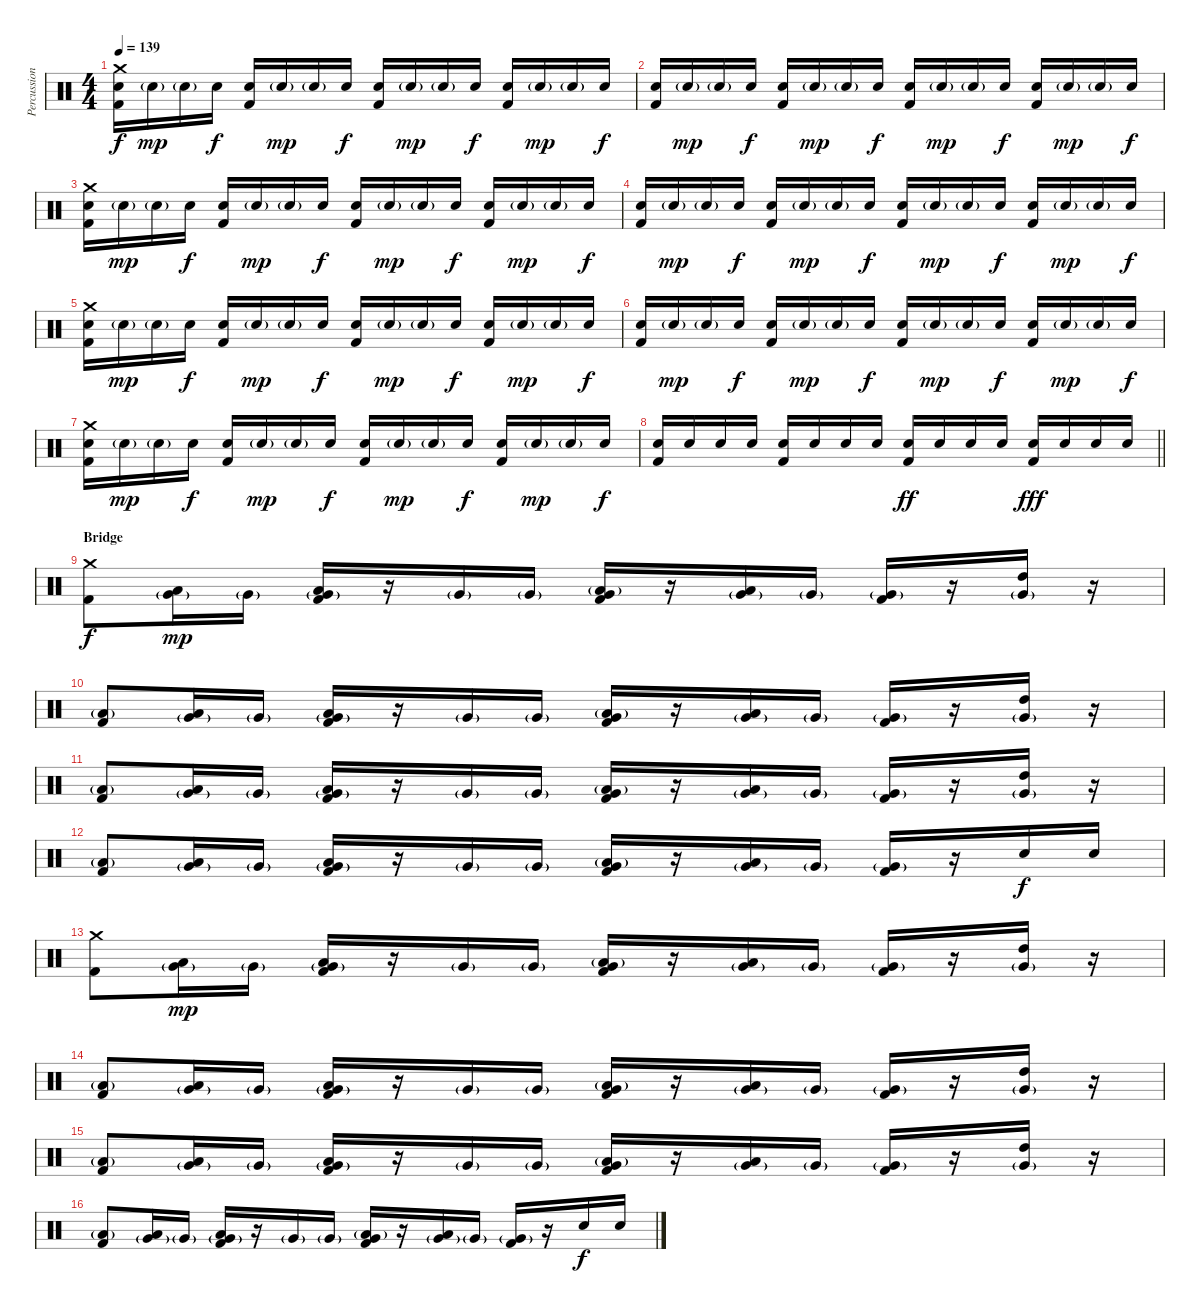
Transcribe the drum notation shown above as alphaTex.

\track ("Percussion" "Percussion") {instrument percussion}
\staff {score}
\articulation defaults
\ts (4 4)
\tempo 139
\clef neutral
\ks c
("Crash medium (hit)" "Snare (hit) 2" "Kick (hit) 2").16{dy f} "Snare (hit) 2"{g}.16{dy mp} "Snare (hit) 2"{g}.16 "Snare (hit) 2".16{dy f} ("Snare (hit) 2" "Kick (hit) 2").16 "Snare (hit) 2"{g}.16{dy mp} "Snare (hit) 2"{g}.16 "Snare (hit) 2".16{dy f} ("Snare (hit) 2" "Kick (hit) 2").16 "Snare (hit) 2"{g}.16{dy mp} "Snare (hit) 2"{g}.16 "Snare (hit) 2".16{dy f} ("Snare (hit) 2" "Kick (hit) 2").16 "Snare (hit) 2"{g}.16{dy mp} "Snare (hit) 2"{g}.16 "Snare (hit) 2".16{dy f} |
("Snare (hit) 2" "Kick (hit) 2").16 "Snare (hit) 2"{g}.16{dy mp} "Snare (hit) 2"{g}.16 "Snare (hit) 2".16{dy f} ("Snare (hit) 2" "Kick (hit) 2").16 "Snare (hit) 2"{g}.16{dy mp} "Snare (hit) 2"{g}.16 "Snare (hit) 2".16{dy f} ("Snare (hit) 2" "Kick (hit) 2").16 "Snare (hit) 2"{g}.16{dy mp} "Snare (hit) 2"{g}.16 "Snare (hit) 2".16{dy f} ("Snare (hit) 2" "Kick (hit) 2").16 "Snare (hit) 2"{g}.16{dy mp} "Snare (hit) 2"{g}.16 "Snare (hit) 2".16{dy f} |
("Crash medium (hit)" "Snare (hit) 2" "Kick (hit) 2").16 "Snare (hit) 2"{g}.16{dy mp} "Snare (hit) 2"{g}.16 "Snare (hit) 2".16{dy f} ("Snare (hit) 2" "Kick (hit) 2").16 "Snare (hit) 2"{g}.16{dy mp} "Snare (hit) 2"{g}.16 "Snare (hit) 2".16{dy f} ("Snare (hit) 2" "Kick (hit) 2").16 "Snare (hit) 2"{g}.16{dy mp} "Snare (hit) 2"{g}.16 "Snare (hit) 2".16{dy f} ("Snare (hit) 2" "Kick (hit) 2").16 "Snare (hit) 2"{g}.16{dy mp} "Snare (hit) 2"{g}.16 "Snare (hit) 2".16{dy f} |
("Snare (hit) 2" "Kick (hit) 2").16 "Snare (hit) 2"{g}.16{dy mp} "Snare (hit) 2"{g}.16 "Snare (hit) 2".16{dy f} ("Snare (hit) 2" "Kick (hit) 2").16 "Snare (hit) 2"{g}.16{dy mp} "Snare (hit) 2"{g}.16 "Snare (hit) 2".16{dy f} ("Snare (hit) 2" "Kick (hit) 2").16 "Snare (hit) 2"{g}.16{dy mp} "Snare (hit) 2"{g}.16 "Snare (hit) 2".16{dy f} ("Snare (hit) 2" "Kick (hit) 2").16 "Snare (hit) 2"{g}.16{dy mp} "Snare (hit) 2"{g}.16 "Snare (hit) 2".16{dy f} |
("Crash medium (hit)" "Snare (hit) 2" "Kick (hit) 2").16 "Snare (hit) 2"{g}.16{dy mp} "Snare (hit) 2"{g}.16 "Snare (hit) 2".16{dy f} ("Snare (hit) 2" "Kick (hit) 2").16 "Snare (hit) 2"{g}.16{dy mp} "Snare (hit) 2"{g}.16 "Snare (hit) 2".16{dy f} ("Snare (hit) 2" "Kick (hit) 2").16 "Snare (hit) 2"{g}.16{dy mp} "Snare (hit) 2"{g}.16 "Snare (hit) 2".16{dy f} ("Snare (hit) 2" "Kick (hit) 2").16 "Snare (hit) 2"{g}.16{dy mp} "Snare (hit) 2"{g}.16 "Snare (hit) 2".16{dy f} |
("Snare (hit) 2" "Kick (hit) 2").16 "Snare (hit) 2"{g}.16{dy mp} "Snare (hit) 2"{g}.16 "Snare (hit) 2".16{dy f} ("Snare (hit) 2" "Kick (hit) 2").16 "Snare (hit) 2"{g}.16{dy mp} "Snare (hit) 2"{g}.16 "Snare (hit) 2".16{dy f} ("Snare (hit) 2" "Kick (hit) 2").16 "Snare (hit) 2"{g}.16{dy mp} "Snare (hit) 2"{g}.16 "Snare (hit) 2".16{dy f} ("Snare (hit) 2" "Kick (hit) 2").16 "Snare (hit) 2"{g}.16{dy mp} "Snare (hit) 2"{g}.16 "Snare (hit) 2".16{dy f} |
("Crash medium (hit)" "Snare (hit) 2" "Kick (hit) 2").16 "Snare (hit) 2"{g}.16{dy mp} "Snare (hit) 2"{g}.16 "Snare (hit) 2".16{dy f} ("Snare (hit) 2" "Kick (hit) 2").16 "Snare (hit) 2"{g}.16{dy mp} "Snare (hit) 2"{g}.16 "Snare (hit) 2".16{dy f} ("Snare (hit) 2" "Kick (hit) 2").16 "Snare (hit) 2"{g}.16{dy mp} "Snare (hit) 2"{g}.16 "Snare (hit) 2".16{dy f} ("Snare (hit) 2" "Kick (hit) 2").16 "Snare (hit) 2"{g}.16{dy mp} "Snare (hit) 2"{g}.16 "Snare (hit) 2".16{dy f} |
\barLineRight lightlight
("Snare (hit) 2" "Kick (hit) 2").16 "Snare (hit) 2".16 "Snare (hit) 2".16 "Snare (hit) 2".16 ("Snare (hit) 2" "Kick (hit) 2").16 "Snare (hit) 2".16 "Snare (hit) 2".16 "Snare (hit) 2".16 ("Snare (hit) 2" "Kick (hit) 2").16{dy ff} "Snare (hit) 2".16 "Snare (hit) 2".16 "Snare (hit) 2".16 ("Snare (hit) 2" "Kick (hit) 2").16{dy fff} "Snare (hit) 2".16 "Snare (hit) 2".16 "Snare (hit) 2".16 |
\section ("" "Bridge")
("Crash medium (hit)" "Kick (hit) 2").8{dy f} ("Low Tom (hit)" "Very Low Tom (hit)"{g}).16{dy mp} "Very Low Tom (hit)"{g}.16 ("Low Tom (hit)" "Very Low Tom (hit)"{g} "Kick (hit) 2").16 r.16 "Very Low Tom (hit)"{g}.16 "Very Low Tom (hit)"{g}.16 ("Very Low Tom (hit)" "Low Floor Tom (hit)"{g} "Kick (hit) 2").16 r.16 ("Low Tom (hit)" "Very Low Tom (hit)"{g}).16 "Very Low Tom (hit)"{g}.16 ("Very Low Tom (hit)"{g} "Kick (hit) 2").16 r.16 ("High Tom (hit)" "Very Low Tom (hit)"{g}).16 r.16 |
("Low Floor Tom (hit)"{g} "Kick (hit) 2").8 ("Low Tom (hit)" "Very Low Tom (hit)"{g}).16 "Very Low Tom (hit)"{g}.16 ("Low Tom (hit)" "Very Low Tom (hit)"{g} "Kick (hit) 2").16 r.16 "Very Low Tom (hit)"{g}.16 "Very Low Tom (hit)"{g}.16 ("Very Low Tom (hit)" "Low Floor Tom (hit)"{g} "Kick (hit) 2").16 r.16 ("Low Tom (hit)" "Very Low Tom (hit)"{g}).16 "Very Low Tom (hit)"{g}.16 ("Very Low Tom (hit)"{g} "Kick (hit) 2").16 r.16 ("High Tom (hit)" "Very Low Tom (hit)"{g}).16 r.16 |
("Low Floor Tom (hit)"{g} "Kick (hit) 2").8 ("Low Tom (hit)" "Very Low Tom (hit)"{g}).16 "Very Low Tom (hit)"{g}.16 ("Low Tom (hit)" "Very Low Tom (hit)"{g} "Kick (hit) 2").16 r.16 "Very Low Tom (hit)"{g}.16 "Very Low Tom (hit)"{g}.16 ("Very Low Tom (hit)" "Low Floor Tom (hit)"{g} "Kick (hit) 2").16 r.16 ("Low Tom (hit)" "Very Low Tom (hit)"{g}).16 "Very Low Tom (hit)"{g}.16 ("Very Low Tom (hit)"{g} "Kick (hit) 2").16 r.16 ("High Tom (hit)" "Very Low Tom (hit)"{g}).16 r.16 |
("Low Floor Tom (hit)"{g} "Kick (hit) 2").8 ("Low Tom (hit)" "Very Low Tom (hit)"{g}).16 "Very Low Tom (hit)"{g}.16 ("Low Tom (hit)" "Very Low Tom (hit)"{g} "Kick (hit) 2").16 r.16 "Very Low Tom (hit)"{g}.16 "Very Low Tom (hit)"{g}.16 ("Very Low Tom (hit)" "Low Floor Tom (hit)"{g} "Kick (hit) 2").16 r.16 ("Low Tom (hit)" "Very Low Tom (hit)"{g}).16 "Very Low Tom (hit)"{g}.16 ("Very Low Tom (hit)"{g} "Kick (hit) 2").16 r.16 "Snare (hit) 2".16{dy f} "Snare (hit) 2".16 |
("Crash medium (hit)" "Kick (hit) 2").8 ("Low Tom (hit)" "Very Low Tom (hit)"{g}).16{dy mp} "Very Low Tom (hit)"{g}.16 ("Low Tom (hit)" "Very Low Tom (hit)"{g} "Kick (hit) 2").16 r.16 "Very Low Tom (hit)"{g}.16 "Very Low Tom (hit)"{g}.16 ("Very Low Tom (hit)" "Low Floor Tom (hit)"{g} "Kick (hit) 2").16 r.16 ("Low Tom (hit)" "Very Low Tom (hit)"{g}).16 "Very Low Tom (hit)"{g}.16 ("Very Low Tom (hit)"{g} "Kick (hit) 2").16 r.16 ("High Tom (hit)" "Very Low Tom (hit)"{g}).16 r.16 |
("Low Floor Tom (hit)"{g} "Kick (hit) 2").8 ("Low Tom (hit)" "Very Low Tom (hit)"{g}).16 "Very Low Tom (hit)"{g}.16 ("Low Tom (hit)" "Very Low Tom (hit)"{g} "Kick (hit) 2").16 r.16 "Very Low Tom (hit)"{g}.16 "Very Low Tom (hit)"{g}.16 ("Very Low Tom (hit)" "Low Floor Tom (hit)"{g} "Kick (hit) 2").16 r.16 ("Low Tom (hit)" "Very Low Tom (hit)"{g}).16 "Very Low Tom (hit)"{g}.16 ("Very Low Tom (hit)"{g} "Kick (hit) 2").16 r.16 ("High Tom (hit)" "Very Low Tom (hit)"{g}).16 r.16 |
("Low Floor Tom (hit)"{g} "Kick (hit) 2").8 ("Low Tom (hit)" "Very Low Tom (hit)"{g}).16 "Very Low Tom (hit)"{g}.16 ("Low Tom (hit)" "Very Low Tom (hit)"{g} "Kick (hit) 2").16 r.16 "Very Low Tom (hit)"{g}.16 "Very Low Tom (hit)"{g}.16 ("Very Low Tom (hit)" "Low Floor Tom (hit)"{g} "Kick (hit) 2").16 r.16 ("Low Tom (hit)" "Very Low Tom (hit)"{g}).16 "Very Low Tom (hit)"{g}.16 ("Very Low Tom (hit)"{g} "Kick (hit) 2").16 r.16 ("High Tom (hit)" "Very Low Tom (hit)"{g}).16 r.16 |
("Low Floor Tom (hit)"{g} "Kick (hit) 2").8 ("Low Tom (hit)" "Very Low Tom (hit)"{g}).16 "Very Low Tom (hit)"{g}.16 ("Low Tom (hit)" "Very Low Tom (hit)"{g} "Kick (hit) 2").16 r.16 "Very Low Tom (hit)"{g}.16 "Very Low Tom (hit)"{g}.16 ("Very Low Tom (hit)" "Low Floor Tom (hit)"{g} "Kick (hit) 2").16 r.16 ("Low Tom (hit)" "Very Low Tom (hit)"{g}).16 "Very Low Tom (hit)"{g}.16 ("Very Low Tom (hit)"{g} "Kick (hit) 2").16 r.16 "Snare (hit) 2".16{dy f} "Snare (hit) 2".16
